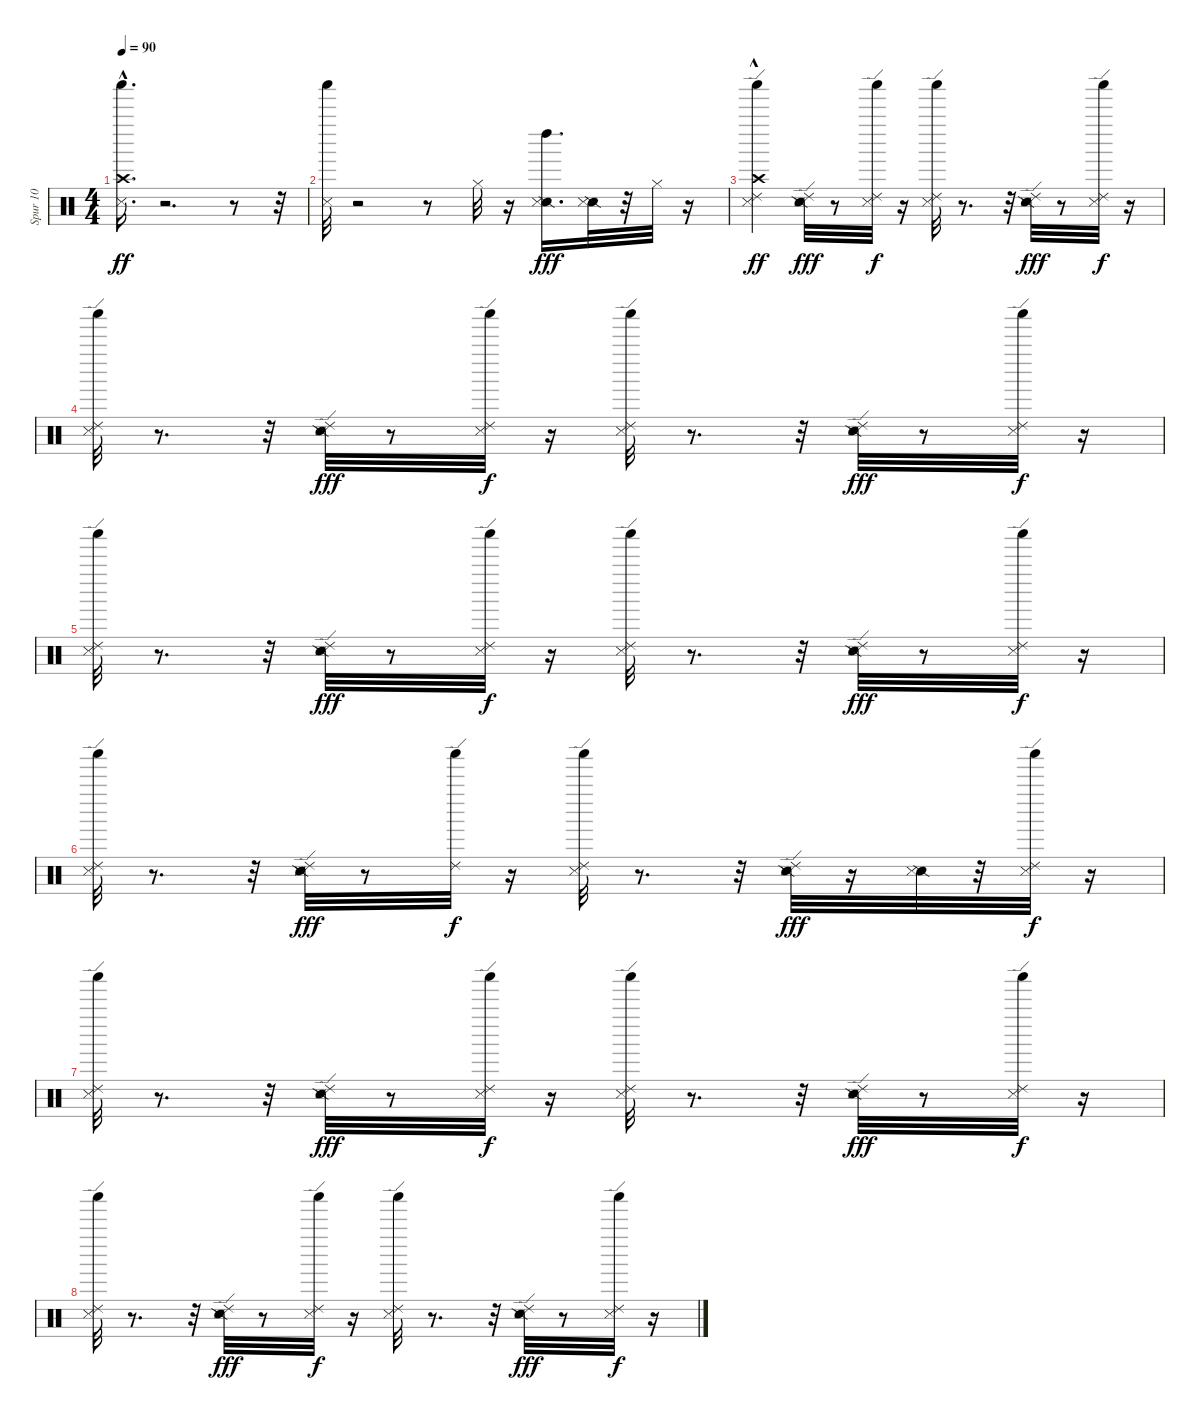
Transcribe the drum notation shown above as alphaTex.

\track ("Spur 10" "Spur 10") {instrument percussion}
\staff {score}
\articulation defaults
\ts (4 4)
\tempo 90
\clef neutral
\ks c
("Shaker (hit)" "Metronome (hit)" "Crash high (hit)"{hac}).16{d dy ff} r.2{d} r.8 r.32 |
("Shaker (hit)" "Metronome (hit)").32 r.2 r.8 "Hi-Hat (closed)".32 r.16 ("Left Maraca (hit)" "Snare (side stick) 2" "Snare (side stick) 3").16{d dy fff} ("Snare (side stick) 2" "Snare (side stick) 3").32 r.32 "Hi-Hat (closed)".32 r.16 |
("Ride (edge) 2" "Shaker (hit)" "Metronome (hit)" "Crash high (hit)"{hac}).4{dy ff} ("Ride (edge) 2" "Snare (side stick) 2" "Snare (side stick) 3").32{dy fff} r.8 ("Ride (edge) 2" "Shaker (hit)" "Metronome (hit)").32{dy f} r.16 ("Ride (edge) 2" "Shaker (hit)" "Metronome (hit)").32 r.8{d} r.32 ("Ride (edge) 2" "Snare (side stick) 2" "Snare (side stick) 3").32{dy fff} r.8 ("Ride (edge) 2" "Shaker (hit)" "Metronome (hit)").32{dy f} r.16 |
("Ride (edge) 2" "Shaker (hit)" "Metronome (hit)").32 r.8{d} r.32 ("Ride (edge) 2" "Snare (side stick) 2" "Snare (side stick) 3").32{dy fff} r.8 ("Shaker (hit)" "Ride (edge) 2" "Metronome (hit)").32{dy f} r.16 ("Ride (edge) 2" "Shaker (hit)" "Metronome (hit)").32 r.8{d} r.32 ("Ride (edge) 2" "Snare (side stick) 2" "Snare (side stick) 3").32{dy fff} r.8 ("Ride (edge) 2" "Shaker (hit)" "Metronome (hit)").32{dy f} r.16 |
("Shaker (hit)" "Ride (edge) 2" "Metronome (hit)").32 r.8{d} r.32 ("Ride (edge) 2" "Snare (side stick) 2" "Snare (side stick) 3").32{dy fff} r.8 ("Ride (edge) 2" "Shaker (hit)" "Metronome (hit)").32{dy f} r.16 ("Ride (edge) 2" "Shaker (hit)" "Metronome (hit)").32 r.8{d} r.32 ("Ride (edge) 2" "Snare (side stick) 2" "Snare (side stick) 3").32{dy fff} r.8 ("Shaker (hit)" "Ride (edge) 2" "Metronome (hit)").32{dy f} r.16 |
("Ride (edge) 2" "Shaker (hit)" "Metronome (hit)").32 r.8{d} r.32 ("Ride (edge) 2" "Snare (side stick) 2" "Metronome (hit)" "Snare (side stick) 3").32{dy fff} r.8 ("Ride (edge) 2" "Shaker (hit)").32{dy f} r.16 ("Ride (edge) 2" "Shaker (hit)" "Metronome (hit)").32 r.8{d} r.32 ("Ride (edge) 2" "Snare (side stick) 2" "Snare (side stick) 3").32{dy fff} r.16 ("Snare (side stick) 2" "Snare (side stick) 3").32 r.32 ("Ride (edge) 2" "Shaker (hit)" "Metronome (hit)").32{dy f} r.16 |
("Ride (edge) 2" "Shaker (hit)" "Metronome (hit)").32 r.8{d} r.32 ("Ride (edge) 2" "Snare (side stick) 2" "Snare (side stick) 3").32{dy fff} r.8 ("Shaker (hit)" "Ride (edge) 2" "Metronome (hit)").32{dy f} r.16 ("Ride (edge) 2" "Shaker (hit)" "Metronome (hit)").32 r.8{d} r.32 ("Ride (edge) 2" "Snare (side stick) 2" "Snare (side stick) 3").32{dy fff} r.8 ("Ride (edge) 2" "Shaker (hit)" "Metronome (hit)").32{dy f} r.16 |
("Ride (edge) 2" "Shaker (hit)" "Metronome (hit)").32 r.8{d} r.32 ("Ride (edge) 2" "Snare (side stick) 2" "Snare (side stick) 3").32{dy fff} r.8 ("Ride (edge) 2" "Shaker (hit)" "Metronome (hit)").32{dy f} r.16 ("Ride (edge) 2" "Shaker (hit)" "Metronome (hit)").32 r.8{d} r.32 ("Ride (edge) 2" "Snare (side stick) 2" "Snare (side stick) 3").32{dy fff} r.8 ("Shaker (hit)" "Ride (edge) 2" "Metronome (hit)").32{dy f} r.16
